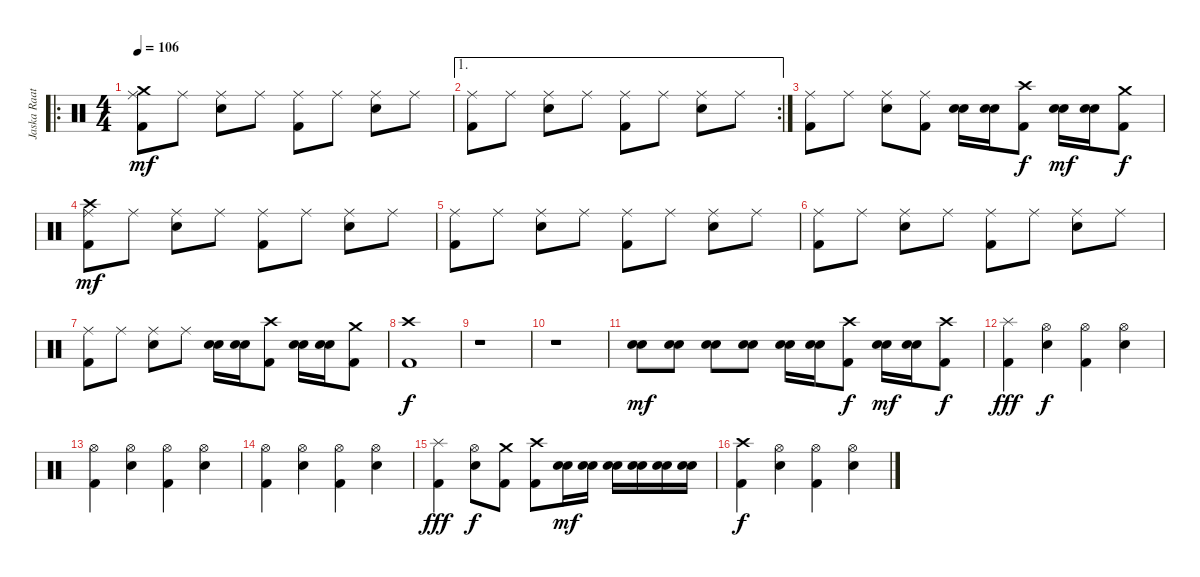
\track ("Jaska Raatikainen" "Jaska Raat") {instrument percussion}
\staff {score}
\articulation defaults
\ro
\ts (4 4)
\tempo 106
\clef neutral
\ks c
("Kick (hit) 2" "Crash medium (hit)" "Ride (middle)").8{dy mf} "Ride (middle)".8 ("Ride (middle)" "Snare (hit) 2").8 "Ride (middle)".8 ("Kick (hit) 2" "Ride (middle)").8 "Ride (middle)".8 ("Ride (middle)" "Snare (hit) 2").8 "Ride (middle)".8 |
\ae 1
\rc 2
("Kick (hit) 2" "Ride (middle)").8 "Ride (middle)".8 ("Ride (middle)" "Snare (hit) 2").8 "Ride (middle)".8 ("Kick (hit) 2" "Ride (middle)").8 "Ride (middle)".8 ("Ride (middle)" "Snare (hit) 2").8 "Ride (middle)".8 |
("Kick (hit) 2" "Ride (middle)").8 "Ride (middle)".8 ("Ride (middle)" "Snare (hit) 2").8 ("Kick (hit) 2" "Ride (middle)").8 ("Electric Snare (hit)" "Snare (hit) 2").16 ("Electric Snare (hit)" "Snare (hit) 2").16 ("Kick (hit) 2" "Crash high (hit)").8{dy f} ("Electric Snare (hit)" "Snare (hit) 2").16{dy mf} ("Electric Snare (hit)" "Snare (hit) 2").16 ("Kick (hit) 2" "Crash medium (hit)").8{dy f} |
("Kick (hit) 2" "Crash high (hit)" "Ride (middle)").8{dy mf} "Ride (middle)".8 ("Ride (middle)" "Snare (hit) 2").8 "Ride (middle)".8 ("Kick (hit) 2" "Ride (middle)").8 "Ride (middle)".8 ("Ride (middle)" "Snare (hit) 2").8 "Ride (middle)".8 |
("Kick (hit) 2" "Ride (middle)").8 "Ride (middle)".8 ("Ride (middle)" "Snare (hit) 2").8 "Ride (middle)".8 ("Kick (hit) 2" "Ride (middle)").8 "Ride (middle)".8 ("Ride (middle)" "Snare (hit) 2").8 "Ride (middle)".8 |
("Kick (hit) 2" "Ride (middle)").8 "Ride (middle)".8 ("Ride (middle)" "Snare (hit) 2").8 "Ride (middle)".8 ("Kick (hit) 2" "Ride (middle)").8 "Ride (middle)".8 ("Ride (middle)" "Snare (hit) 2").8 "Ride (middle)".8 |
("Kick (hit) 2" "Ride (middle)").8 "Ride (middle)".8 ("Ride (middle)" "Snare (hit) 2").8 "Ride (middle)".8 ("Electric Snare (hit)" "Snare (hit) 2").16 ("Electric Snare (hit)" "Snare (hit) 2").16 ("Kick (hit) 2" "Crash high (hit)").8 ("Electric Snare (hit)" "Snare (hit) 2").16 ("Electric Snare (hit)" "Snare (hit) 2").16 ("Kick (hit) 2" "Crash medium (hit)").8 |
("Kick (hit) 2" "Crash high (hit)").1{dy f} |
r.1 |
r.1 |
("Electric Snare (hit)" "Snare (hit) 2").8{dy mf} ("Electric Snare (hit)" "Snare (hit) 2").8 ("Electric Snare (hit)" "Snare (hit) 2").8 ("Electric Snare (hit)" "Snare (hit) 2").8 ("Electric Snare (hit)" "Snare (hit) 2").16 ("Electric Snare (hit)" "Snare (hit) 2").16 ("Kick (hit) 2" "Crash high (hit)").8{dy f} ("Electric Snare (hit)" "Snare (hit) 2").16{dy mf} ("Electric Snare (hit)" "Snare (hit) 2").16 ("Kick (hit) 2" "Crash high (hit)").8{dy f} |
("Kick (hit) 2" "Splash (hit)").4{dy fff} ("Hi-Hat (open)" "Snare (hit) 2").4{dy f} ("Kick (hit) 2" "Hi-Hat (open)").4 ("Hi-Hat (open)" "Snare (hit) 2").4 |
("Kick (hit) 2" "Hi-Hat (open)").4 ("Hi-Hat (open)" "Snare (hit) 2").4 ("Kick (hit) 2" "Hi-Hat (open)").4 ("Hi-Hat (open)" "Snare (hit) 2").4 |
("Kick (hit) 2" "Hi-Hat (open)").4 ("Hi-Hat (open)" "Snare (hit) 2").4 ("Kick (hit) 2" "Hi-Hat (open)").4 ("Hi-Hat (open)" "Snare (hit) 2").4 |
("Kick (hit) 2" "Splash (hit)").4{dy fff} ("Hi-Hat (open)" "Snare (hit) 2").8{dy f} ("Kick (hit) 2" "Crash medium (hit)").8 ("Kick (hit) 2" "Crash high (hit)").8 ("Electric Snare (hit)" "Snare (hit) 2").16{dy mf} ("Electric Snare (hit)" "Snare (hit) 2").16 ("Electric Snare (hit)" "Snare (hit) 2").16 ("Electric Snare (hit)" "Snare (hit) 2").16 ("Electric Snare (hit)" "Snare (hit) 2").16 ("Electric Snare (hit)" "Snare (hit) 2").16 |
("Kick (hit) 2" "Crash high (hit)").4{dy f} ("Hi-Hat (open)" "Snare (hit) 2").4 ("Kick (hit) 2" "Hi-Hat (open)").4 ("Hi-Hat (open)" "Snare (hit) 2").4
